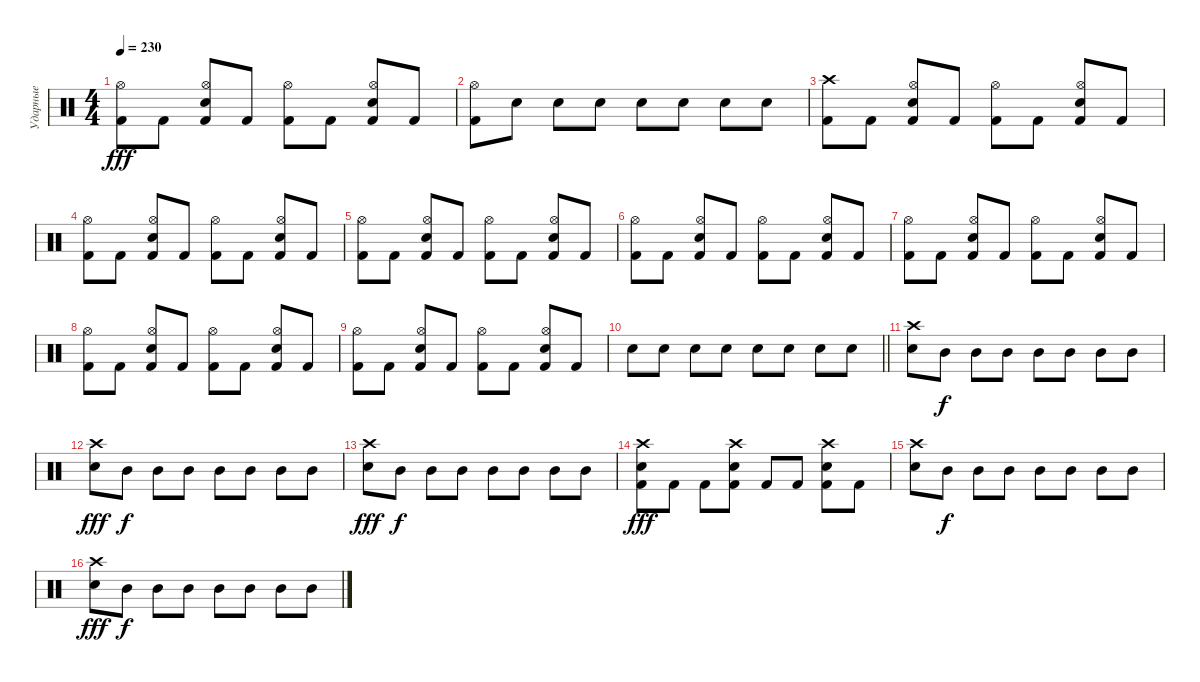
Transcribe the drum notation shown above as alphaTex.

\track ("Ударные" "Ударные") {instrument percussion}
\staff {score}
\articulation defaults
\ts (4 4)
\tempo 230
\clef neutral
\ks c
("Kick (hit) 2" "Hi-Hat (open)").8{dy fff} "Kick (hit) 2".8 ("Kick (hit) 2" "Snare (hit) 2" "Hi-Hat (open)").8 "Kick (hit) 2".8 ("Kick (hit) 2" "Hi-Hat (open)").8 "Kick (hit) 2".8 ("Kick (hit) 2" "Snare (hit) 2" "Hi-Hat (open)").8 "Kick (hit) 2".8 |
("Kick (hit) 2" "Hi-Hat (open)").8 "Snare (hit) 2".8 "Snare (hit) 2".8 "Snare (hit) 2".8 "Snare (hit) 2".8 "Snare (hit) 2".8 "Snare (hit) 2".8 "Snare (hit) 2".8 |
("Kick (hit) 2" "Crash high (hit)").8 "Kick (hit) 2".8 ("Kick (hit) 2" "Snare (hit) 2" "Hi-Hat (open)").8 "Kick (hit) 2".8 ("Kick (hit) 2" "Hi-Hat (open)").8 "Kick (hit) 2".8 ("Kick (hit) 2" "Snare (hit) 2" "Hi-Hat (open)").8 "Kick (hit) 2".8 |
("Kick (hit) 2" "Hi-Hat (open)").8 "Kick (hit) 2".8 ("Kick (hit) 2" "Snare (hit) 2" "Hi-Hat (open)").8 "Kick (hit) 2".8 ("Kick (hit) 2" "Hi-Hat (open)").8 "Kick (hit) 2".8 ("Kick (hit) 2" "Snare (hit) 2" "Hi-Hat (open)").8 "Kick (hit) 2".8 |
("Kick (hit) 2" "Hi-Hat (open)").8 "Kick (hit) 2".8 ("Kick (hit) 2" "Snare (hit) 2" "Hi-Hat (open)").8 "Kick (hit) 2".8 ("Kick (hit) 2" "Hi-Hat (open)").8 "Kick (hit) 2".8 ("Kick (hit) 2" "Snare (hit) 2" "Hi-Hat (open)").8 "Kick (hit) 2".8 |
("Kick (hit) 2" "Hi-Hat (open)").8 "Kick (hit) 2".8 ("Kick (hit) 2" "Snare (hit) 2" "Hi-Hat (open)").8 "Kick (hit) 2".8 ("Kick (hit) 2" "Hi-Hat (open)").8 "Kick (hit) 2".8 ("Kick (hit) 2" "Snare (hit) 2" "Hi-Hat (open)").8 "Kick (hit) 2".8 |
("Kick (hit) 2" "Hi-Hat (open)").8 "Kick (hit) 2".8 ("Kick (hit) 2" "Snare (hit) 2" "Hi-Hat (open)").8 "Kick (hit) 2".8 ("Kick (hit) 2" "Hi-Hat (open)").8 "Kick (hit) 2".8 ("Kick (hit) 2" "Snare (hit) 2" "Hi-Hat (open)").8 "Kick (hit) 2".8 |
("Kick (hit) 2" "Hi-Hat (open)").8 "Kick (hit) 2".8 ("Kick (hit) 2" "Snare (hit) 2" "Hi-Hat (open)").8 "Kick (hit) 2".8 ("Kick (hit) 2" "Hi-Hat (open)").8 "Kick (hit) 2".8 ("Kick (hit) 2" "Snare (hit) 2" "Hi-Hat (open)").8 "Kick (hit) 2".8 |
("Kick (hit) 2" "Hi-Hat (open)").8 "Kick (hit) 2".8 ("Kick (hit) 2" "Snare (hit) 2" "Hi-Hat (open)").8 "Kick (hit) 2".8 ("Kick (hit) 2" "Hi-Hat (open)").8 "Kick (hit) 2".8 ("Kick (hit) 2" "Snare (hit) 2" "Hi-Hat (open)").8 "Kick (hit) 2".8 |
\barLineRight lightlight "Snare (hit) 2".8 "Snare (hit) 2".8 "Snare (hit) 2".8 "Snare (hit) 2".8 "Snare (hit) 2".8 "Snare (hit) 2".8 "Snare (hit) 2".8 "Snare (hit) 2".8
|
("Snare (hit) 2" "Crash high (hit)").8 "Mid Tom (hit)".8{dy f} "Mid Tom (hit)".8 "Mid Tom (hit)".8 "Mid Tom (hit)".8 "Mid Tom (hit)".8 "Mid Tom (hit)".8 "Mid Tom (hit)".8 |
("Snare (hit) 2" "Crash high (hit)").8{dy fff} "Mid Tom (hit)".8{dy f} "Mid Tom (hit)".8 "Mid Tom (hit)".8 "Mid Tom (hit)".8 "Mid Tom (hit)".8 "Mid Tom (hit)".8 "Mid Tom (hit)".8 |
("Snare (hit) 2" "Crash high (hit)").8{dy fff} "Mid Tom (hit)".8{dy f} "Mid Tom (hit)".8 "Mid Tom (hit)".8 "Mid Tom (hit)".8 "Mid Tom (hit)".8 "Mid Tom (hit)".8 "Mid Tom (hit)".8 |
("Kick (hit) 2" "Snare (hit) 2" "Crash high (hit)").8{dy fff} "Kick (hit) 2".8 "Kick (hit) 2".8 ("Kick (hit) 2" "Snare (hit) 2" "Crash high (hit)").8 "Kick (hit) 2".8 "Kick (hit) 2".8 ("Kick (hit) 2" "Snare (hit) 2" "Crash high (hit)").8 "Kick (hit) 2".8 |
("Snare (hit) 2" "Crash high (hit)").8 "Mid Tom (hit)".8{dy f} "Mid Tom (hit)".8 "Mid Tom (hit)".8 "Mid Tom (hit)".8 "Mid Tom (hit)".8 "Mid Tom (hit)".8 "Mid Tom (hit)".8 |
("Snare (hit) 2" "Crash high (hit)").8{dy fff} "Mid Tom (hit)".8{dy f} "Mid Tom (hit)".8 "Mid Tom (hit)".8 "Mid Tom (hit)".8 "Mid Tom (hit)".8 "Mid Tom (hit)".8 "Mid Tom (hit)".8
